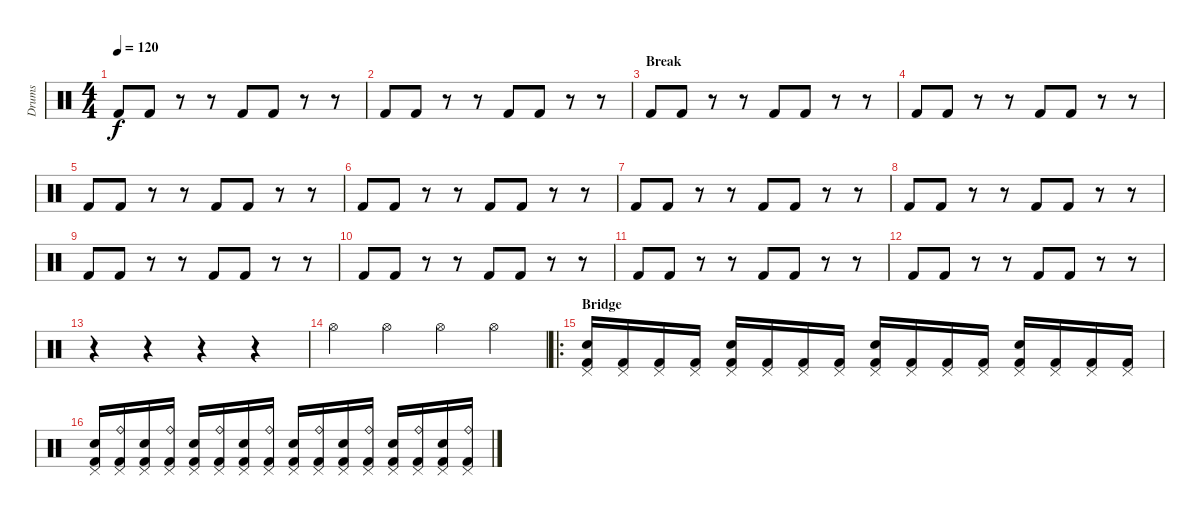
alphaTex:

\track ("Drums" "Drums") {instrument percussion}
\staff {score}
\articulation defaults
\ts (4 4)
\tempo 120
\clef neutral
\ks c "Kick (hit) 2".8{dy f} "Kick (hit) 2".8
r.8 r.8 "Kick (hit) 2".8 "Kick (hit) 2".8 r.8 r.8 |
"Kick (hit) 2".8 "Kick (hit) 2".8 r.8 r.8 "Kick (hit) 2".8 "Kick (hit) 2".8 r.8 r.8 |
\section ("" "Break")
"Kick (hit) 2".8 "Kick (hit) 2".8 r.8 r.8 "Kick (hit) 2".8 "Kick (hit) 2".8 r.8 r.8 |
"Kick (hit) 2".8 "Kick (hit) 2".8 r.8 r.8 "Kick (hit) 2".8 "Kick (hit) 2".8 r.8 r.8 |
"Kick (hit) 2".8 "Kick (hit) 2".8 r.8 r.8 "Kick (hit) 2".8 "Kick (hit) 2".8 r.8 r.8 |
"Kick (hit) 2".8 "Kick (hit) 2".8 r.8 r.8 "Kick (hit) 2".8 "Kick (hit) 2".8 r.8 r.8 |
"Kick (hit) 2".8 "Kick (hit) 2".8 r.8 r.8 "Kick (hit) 2".8 "Kick (hit) 2".8 r.8 r.8 |
"Kick (hit) 2".8 "Kick (hit) 2".8 r.8 r.8 "Kick (hit) 2".8 "Kick (hit) 2".8 r.8 r.8 |
"Kick (hit) 2".8 "Kick (hit) 2".8 r.8 r.8 "Kick (hit) 2".8 "Kick (hit) 2".8 r.8 r.8 |
"Kick (hit) 2".8 "Kick (hit) 2".8 r.8 r.8 "Kick (hit) 2".8 "Kick (hit) 2".8 r.8 r.8 |
"Kick (hit) 2".8 "Kick (hit) 2".8 r.8 r.8 "Kick (hit) 2".8 "Kick (hit) 2".8 r.8 r.8 |
"Kick (hit) 2".8 "Kick (hit) 2".8 r.8 r.8 "Kick (hit) 2".8 "Kick (hit) 2".8 r.8 r.8 |
r.4 r.4 r.4 r.4 |
"Hi-Hat (open)".4 "Hi-Hat (open)".4 "Hi-Hat (open)".4 "Hi-Hat (open)".4 |
\ro
\section ("" "Bridge")
("Electric Snare (hit)" "Kick (hit) 2" "Pedal Hi-Hat (hit)").16 ("Kick (hit) 2" "Pedal Hi-Hat (hit)").16 ("Kick (hit) 2" "Pedal Hi-Hat (hit)").16 ("Kick (hit) 2" "Pedal Hi-Hat (hit)").16 ("Electric Snare (hit)" "Kick (hit) 2" "Pedal Hi-Hat (hit)").16 ("Kick (hit) 2" "Pedal Hi-Hat (hit)").16 ("Kick (hit) 2" "Pedal Hi-Hat (hit)").16 ("Kick (hit) 2" "Pedal Hi-Hat (hit)").16 ("Electric Snare (hit)" "Kick (hit) 2" "Pedal Hi-Hat (hit)").16 ("Kick (hit) 2" "Pedal Hi-Hat (hit)").16 ("Kick (hit) 2" "Pedal Hi-Hat (hit)").16 ("Kick (hit) 2" "Pedal Hi-Hat (hit)").16 ("Electric Snare (hit)" "Kick (hit) 2" "Pedal Hi-Hat (hit)").16 ("Kick (hit) 2" "Pedal Hi-Hat (hit)").16 ("Kick (hit) 2" "Pedal Hi-Hat (hit)").16 ("Kick (hit) 2" "Pedal Hi-Hat (hit)").16 |
("Electric Snare (hit)" "Kick (hit) 2" "Pedal Hi-Hat (hit)").16 ("Ride (bell)" "Kick (hit) 2" "Pedal Hi-Hat (hit)").16 ("Electric Snare (hit)" "Kick (hit) 2" "Pedal Hi-Hat (hit)").16 ("Ride (bell)" "Kick (hit) 2" "Pedal Hi-Hat (hit)").16 ("Electric Snare (hit)" "Kick (hit) 2" "Pedal Hi-Hat (hit)").16 ("Ride (bell)" "Kick (hit) 2" "Pedal Hi-Hat (hit)").16 ("Electric Snare (hit)" "Kick (hit) 2" "Pedal Hi-Hat (hit)").16 ("Ride (bell)" "Kick (hit) 2" "Pedal Hi-Hat (hit)").16 ("Electric Snare (hit)" "Kick (hit) 2" "Pedal Hi-Hat (hit)").16 ("Ride (bell)" "Kick (hit) 2" "Pedal Hi-Hat (hit)").16 ("Electric Snare (hit)" "Kick (hit) 2" "Pedal Hi-Hat (hit)").16 ("Ride (bell)" "Kick (hit) 2" "Pedal Hi-Hat (hit)").16 ("Electric Snare (hit)" "Kick (hit) 2" "Pedal Hi-Hat (hit)").16 ("Ride (bell)" "Kick (hit) 2" "Pedal Hi-Hat (hit)").16 ("Electric Snare (hit)" "Kick (hit) 2" "Pedal Hi-Hat (hit)").16 ("Ride (bell)" "Kick (hit) 2" "Pedal Hi-Hat (hit)").16
